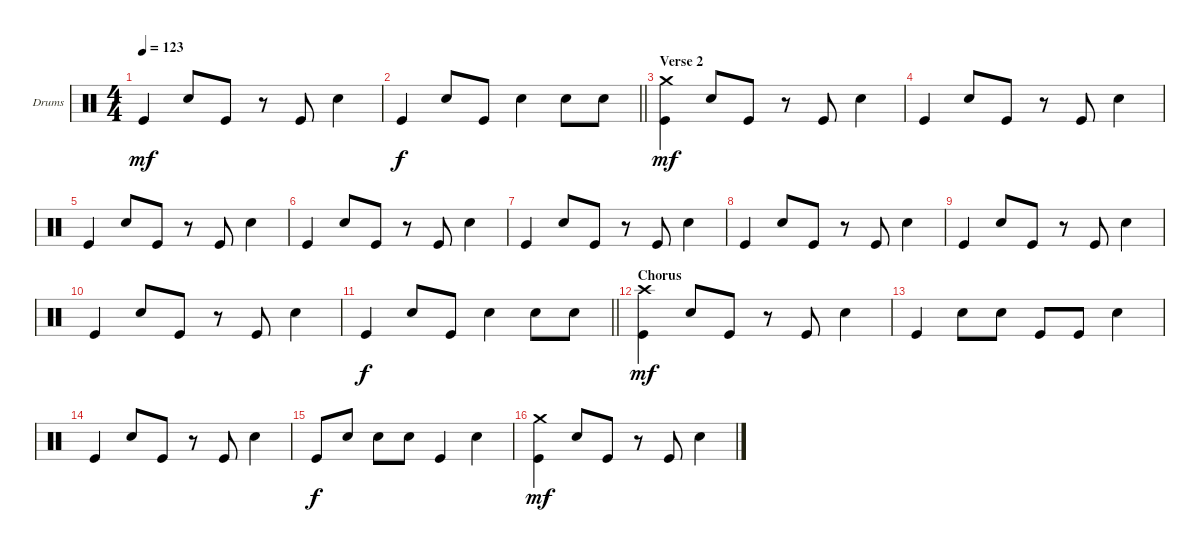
\defaultSystemsLayout 4
\bracketExtendMode groupsimilarinstruments
\firstSystemTrackNameOrientation horizontal
\otherSystemsTrackNameOrientation horizontal
\track ("Drumkit" "Drums") {instrument percussion}
\staff {score}
\articulation defaults
\ts (4 4)
\tempo 123
\clef neutral
\ks c "Kick (hit)".4{dy mf} "Snare (hit) 2".8 "Kick (hit)".8
r.8 "Kick (hit)".8 "Snare (hit) 2".4 |
\barLineRight lightlight "Kick (hit)".4{dy f} "Snare (hit) 2".8 "Kick (hit)".8 "Snare (hit) 2".4 "Snare (hit) 2".8 "Snare (hit) 2".8
|
\section ("" "Verse 2")
("Kick (hit)" "Crash medium (hit)").4{dy mf} "Snare (hit) 2".8 "Kick (hit)".8 r.8 "Kick (hit)".8 "Snare (hit) 2".4 |
"Kick (hit)".4 "Snare (hit) 2".8 "Kick (hit)".8 r.8 "Kick (hit)".8 "Snare (hit) 2".4 |
"Kick (hit)".4 "Snare (hit) 2".8 "Kick (hit)".8 r.8 "Kick (hit)".8 "Snare (hit) 2".4 |
"Kick (hit)".4 "Snare (hit) 2".8 "Kick (hit)".8 r.8 "Kick (hit)".8 "Snare (hit) 2".4 |
"Kick (hit)".4 "Snare (hit) 2".8 "Kick (hit)".8 r.8 "Kick (hit)".8 "Snare (hit) 2".4 |
"Kick (hit)".4 "Snare (hit) 2".8 "Kick (hit)".8 r.8 "Kick (hit)".8 "Snare (hit) 2".4 |
"Kick (hit)".4 "Snare (hit) 2".8 "Kick (hit)".8 r.8 "Kick (hit)".8 "Snare (hit) 2".4 |
"Kick (hit)".4 "Snare (hit) 2".8 "Kick (hit)".8 r.8 "Kick (hit)".8 "Snare (hit) 2".4 |
\barLineRight lightlight "Kick (hit)".4{dy f} "Snare (hit) 2".8 "Kick (hit)".8 "Snare (hit) 2".4 "Snare (hit) 2".8 "Snare (hit) 2".8
|
\section ("" "Chorus")
("Kick (hit)" "Crash high (hit)").4{dy mf} "Snare (hit) 2".8 "Kick (hit)".8 r.8 "Kick (hit)".8 "Snare (hit) 2".4 |
"Kick (hit)".4 "Snare (hit) 2".8 "Snare (hit) 2".8 "Kick (hit)".8 "Kick (hit)".8 "Snare (hit) 2".4 |
"Kick (hit)".4 "Snare (hit) 2".8 "Kick (hit)".8 r.8 "Kick (hit)".8 "Snare (hit) 2".4 |
"Kick (hit)".8{dy f} "Snare (hit) 2".8 "Snare (hit) 2".8 "Snare (hit) 2".8 "Kick (hit)".4 "Snare (hit) 2".4 |
("Kick (hit)" "Crash medium (hit)").4{dy mf} "Snare (hit) 2".8 "Kick (hit)".8 r.8 "Kick (hit)".8 "Snare (hit) 2".4
